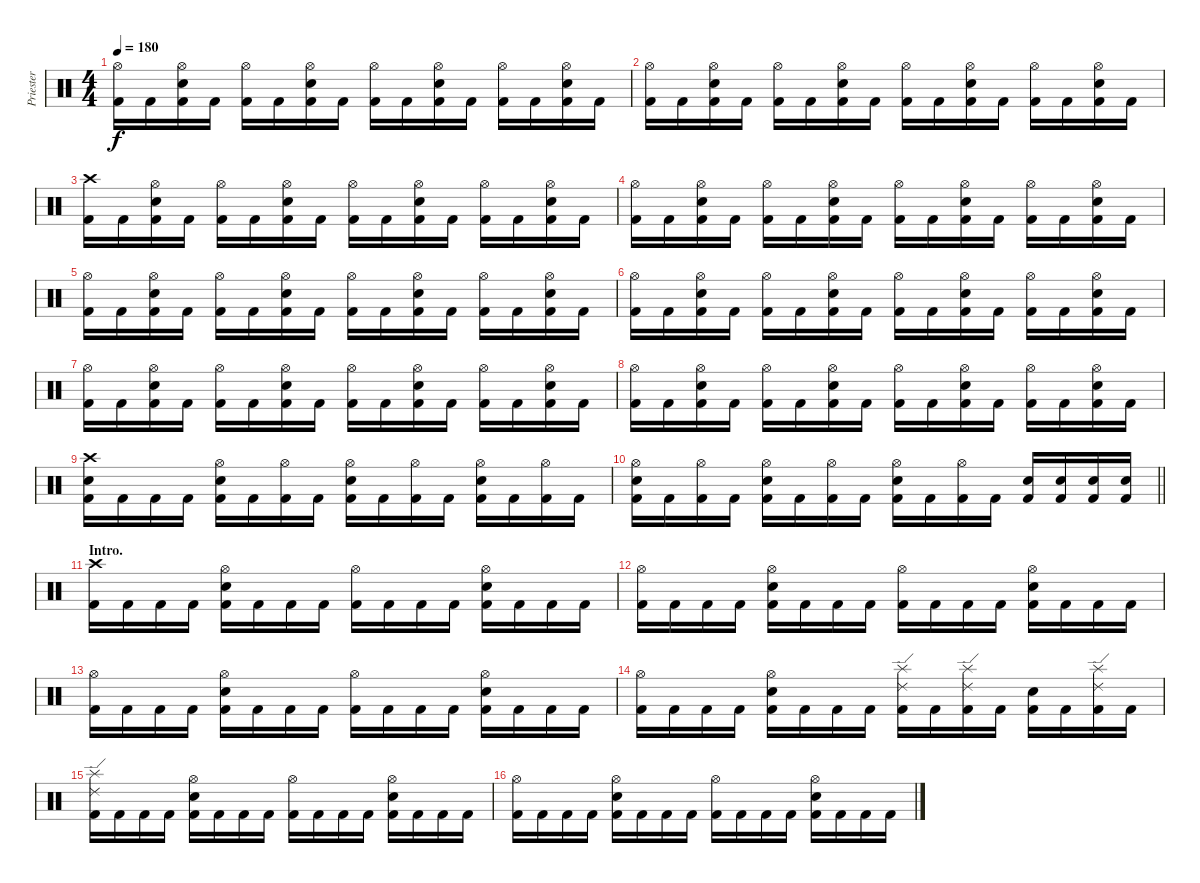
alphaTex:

\track ("Priester" "Priester") {instrument percussion}
\staff {score}
\articulation defaults
\ts (4 4)
\tempo 180
\clef neutral
\ks c
("Hi-Hat (open)" "Kick (hit) 2").16{dy f} "Kick (hit) 2".16 ("Hi-Hat (open)" "Electric Snare (hit)" "Kick (hit) 2").16 "Kick (hit) 2".16 ("Hi-Hat (open)" "Kick (hit) 2").16 "Kick (hit) 2".16 ("Hi-Hat (open)" "Electric Snare (hit)" "Kick (hit) 2").16 "Kick (hit) 2".16 ("Hi-Hat (open)" "Kick (hit) 2").16 "Kick (hit) 2".16 ("Hi-Hat (open)" "Electric Snare (hit)" "Kick (hit) 2").16 "Kick (hit) 2".16 ("Hi-Hat (open)" "Kick (hit) 2").16 "Kick (hit) 2".16 ("Hi-Hat (open)" "Electric Snare (hit)" "Kick (hit) 2").16 "Kick (hit) 2".16 |
("Hi-Hat (open)" "Kick (hit) 2").16 "Kick (hit) 2".16 ("Hi-Hat (open)" "Electric Snare (hit)" "Kick (hit) 2").16 "Kick (hit) 2".16 ("Hi-Hat (open)" "Kick (hit) 2").16 "Kick (hit) 2".16 ("Hi-Hat (open)" "Electric Snare (hit)" "Kick (hit) 2").16 "Kick (hit) 2".16 ("Hi-Hat (open)" "Kick (hit) 2").16 "Kick (hit) 2".16 ("Hi-Hat (open)" "Electric Snare (hit)" "Kick (hit) 2").16 "Kick (hit) 2".16 ("Hi-Hat (open)" "Kick (hit) 2").16 "Kick (hit) 2".16 ("Hi-Hat (open)" "Electric Snare (hit)" "Kick (hit) 2").16 "Kick (hit) 2".16 |
("Crash high (hit)" "Kick (hit) 2").16 "Kick (hit) 2".16 ("Hi-Hat (open)" "Electric Snare (hit)" "Kick (hit) 2").16 "Kick (hit) 2".16 ("Hi-Hat (open)" "Kick (hit) 2").16 "Kick (hit) 2".16 ("Hi-Hat (open)" "Electric Snare (hit)" "Kick (hit) 2").16 "Kick (hit) 2".16 ("Hi-Hat (open)" "Kick (hit) 2").16 "Kick (hit) 2".16 ("Hi-Hat (open)" "Electric Snare (hit)" "Kick (hit) 2").16 "Kick (hit) 2".16 ("Hi-Hat (open)" "Kick (hit) 2").16 "Kick (hit) 2".16 ("Hi-Hat (open)" "Electric Snare (hit)" "Kick (hit) 2").16 "Kick (hit) 2".16 |
("Hi-Hat (open)" "Kick (hit) 2").16 "Kick (hit) 2".16 ("Hi-Hat (open)" "Electric Snare (hit)" "Kick (hit) 2").16 "Kick (hit) 2".16 ("Hi-Hat (open)" "Kick (hit) 2").16 "Kick (hit) 2".16 ("Hi-Hat (open)" "Electric Snare (hit)" "Kick (hit) 2").16 "Kick (hit) 2".16 ("Hi-Hat (open)" "Kick (hit) 2").16 "Kick (hit) 2".16 ("Hi-Hat (open)" "Electric Snare (hit)" "Kick (hit) 2").16 "Kick (hit) 2".16 ("Hi-Hat (open)" "Kick (hit) 2").16 "Kick (hit) 2".16 ("Hi-Hat (open)" "Electric Snare (hit)" "Kick (hit) 2").16 "Kick (hit) 2".16 |
("Hi-Hat (open)" "Kick (hit) 2").16 "Kick (hit) 2".16 ("Hi-Hat (open)" "Electric Snare (hit)" "Kick (hit) 2").16 "Kick (hit) 2".16 ("Hi-Hat (open)" "Kick (hit) 2").16 "Kick (hit) 2".16 ("Hi-Hat (open)" "Electric Snare (hit)" "Kick (hit) 2").16 "Kick (hit) 2".16 ("Hi-Hat (open)" "Kick (hit) 2").16 "Kick (hit) 2".16 ("Hi-Hat (open)" "Electric Snare (hit)" "Kick (hit) 2").16 "Kick (hit) 2".16 ("Hi-Hat (open)" "Kick (hit) 2").16 "Kick (hit) 2".16 ("Hi-Hat (open)" "Electric Snare (hit)" "Kick (hit) 2").16 "Kick (hit) 2".16 |
("Hi-Hat (open)" "Kick (hit) 2").16 "Kick (hit) 2".16 ("Hi-Hat (open)" "Electric Snare (hit)" "Kick (hit) 2").16 "Kick (hit) 2".16 ("Hi-Hat (open)" "Kick (hit) 2").16 "Kick (hit) 2".16 ("Hi-Hat (open)" "Electric Snare (hit)" "Kick (hit) 2").16 "Kick (hit) 2".16 ("Hi-Hat (open)" "Kick (hit) 2").16 "Kick (hit) 2".16 ("Hi-Hat (open)" "Electric Snare (hit)" "Kick (hit) 2").16 "Kick (hit) 2".16 ("Hi-Hat (open)" "Kick (hit) 2").16 "Kick (hit) 2".16 ("Hi-Hat (open)" "Electric Snare (hit)" "Kick (hit) 2").16 "Kick (hit) 2".16 |
("Hi-Hat (open)" "Kick (hit) 2").16 "Kick (hit) 2".16 ("Hi-Hat (open)" "Electric Snare (hit)" "Kick (hit) 2").16 "Kick (hit) 2".16 ("Hi-Hat (open)" "Kick (hit) 2").16 "Kick (hit) 2".16 ("Hi-Hat (open)" "Electric Snare (hit)" "Kick (hit) 2").16 "Kick (hit) 2".16 ("Hi-Hat (open)" "Kick (hit) 2").16 "Kick (hit) 2".16 ("Hi-Hat (open)" "Electric Snare (hit)" "Kick (hit) 2").16 "Kick (hit) 2".16 ("Hi-Hat (open)" "Kick (hit) 2").16 "Kick (hit) 2".16 ("Hi-Hat (open)" "Electric Snare (hit)" "Kick (hit) 2").16 "Kick (hit) 2".16 |
("Hi-Hat (open)" "Kick (hit) 2").16 "Kick (hit) 2".16 ("Hi-Hat (open)" "Electric Snare (hit)" "Kick (hit) 2").16 "Kick (hit) 2".16 ("Hi-Hat (open)" "Kick (hit) 2").16 "Kick (hit) 2".16 ("Hi-Hat (open)" "Electric Snare (hit)" "Kick (hit) 2").16 "Kick (hit) 2".16 ("Hi-Hat (open)" "Kick (hit) 2").16 "Kick (hit) 2".16 ("Hi-Hat (open)" "Electric Snare (hit)" "Kick (hit) 2").16 "Kick (hit) 2".16 ("Hi-Hat (open)" "Kick (hit) 2").16 "Kick (hit) 2".16 ("Hi-Hat (open)" "Electric Snare (hit)" "Kick (hit) 2").16 "Kick (hit) 2".16 |
("Crash high (hit)" "Electric Snare (hit)" "Kick (hit) 2").16 "Kick (hit) 2".16 "Kick (hit) 2".16 "Kick (hit) 2".16 ("Hi-Hat (open)" "Electric Snare (hit)" "Kick (hit) 2").16 "Kick (hit) 2".16 ("Hi-Hat (open)" "Kick (hit) 2").16 "Kick (hit) 2".16 ("Hi-Hat (open)" "Electric Snare (hit)" "Kick (hit) 2").16 "Kick (hit) 2".16 ("Hi-Hat (open)" "Kick (hit) 2").16 "Kick (hit) 2".16 ("Hi-Hat (open)" "Electric Snare (hit)" "Kick (hit) 2").16 "Kick (hit) 2".16 ("Hi-Hat (open)" "Kick (hit) 2").16 "Kick (hit) 2".16 |
\barLineRight lightlight
("Hi-Hat (open)" "Electric Snare (hit)" "Kick (hit) 2").16 "Kick (hit) 2".16 ("Hi-Hat (open)" "Kick (hit) 2").16 "Kick (hit) 2".16 ("Hi-Hat (open)" "Electric Snare (hit)" "Kick (hit) 2").16 "Kick (hit) 2".16 ("Hi-Hat (open)" "Kick (hit) 2").16 "Kick (hit) 2".16 ("Hi-Hat (open)" "Electric Snare (hit)" "Kick (hit) 2").16 "Kick (hit) 2".16 ("Hi-Hat (open)" "Kick (hit) 2").16 "Kick (hit) 2".16 ("Electric Snare (hit)" "Kick (hit) 2").16 ("Electric Snare (hit)" "Kick (hit) 2").16 ("Electric Snare (hit)" "Kick (hit) 2").16 ("Electric Snare (hit)" "Kick (hit) 2").16 |
\section ("" "Intro.")
("Crash high (hit)" "Kick (hit) 2").16 "Kick (hit) 2".16 "Kick (hit) 2".16 "Kick (hit) 2".16 ("Hi-Hat (open)" "Electric Snare (hit)" "Kick (hit) 2").16 "Kick (hit) 2".16 "Kick (hit) 2".16 "Kick (hit) 2".16 ("Hi-Hat (open)" "Kick (hit) 2").16 "Kick (hit) 2".16 "Kick (hit) 2".16 "Kick (hit) 2".16 ("Hi-Hat (open)" "Electric Snare (hit)" "Kick (hit) 2").16 "Kick (hit) 2".16 "Kick (hit) 2".16 "Kick (hit) 2".16 |
("Hi-Hat (open)" "Kick (hit) 2").16 "Kick (hit) 2".16 "Kick (hit) 2".16 "Kick (hit) 2".16 ("Hi-Hat (open)" "Electric Snare (hit)" "Kick (hit) 2").16 "Kick (hit) 2".16 "Kick (hit) 2".16 "Kick (hit) 2".16 ("Hi-Hat (open)" "Kick (hit) 2").16 "Kick (hit) 2".16 "Kick (hit) 2".16 "Kick (hit) 2".16 ("Hi-Hat (open)" "Electric Snare (hit)" "Kick (hit) 2").16 "Kick (hit) 2".16 "Kick (hit) 2".16 "Kick (hit) 2".16 |
("Hi-Hat (open)" "Kick (hit) 2").16 "Kick (hit) 2".16 "Kick (hit) 2".16 "Kick (hit) 2".16 ("Hi-Hat (open)" "Electric Snare (hit)" "Kick (hit) 2").16 "Kick (hit) 2".16 "Kick (hit) 2".16 "Kick (hit) 2".16 ("Hi-Hat (open)" "Kick (hit) 2").16 "Kick (hit) 2".16 "Kick (hit) 2".16 "Kick (hit) 2".16 ("Hi-Hat (open)" "Electric Snare (hit)" "Kick (hit) 2").16 "Kick (hit) 2".16 "Kick (hit) 2".16 "Kick (hit) 2".16 |
("Hi-Hat (open)" "Kick (hit) 2").16 "Kick (hit) 2".16 "Kick (hit) 2".16 "Kick (hit) 2".16 ("Hi-Hat (open)" "Electric Snare (hit)" "Kick (hit) 2").16 "Kick (hit) 2".16 "Kick (hit) 2".16 "Kick (hit) 2".16 ("Ride (edge) 2" "Splash (hit)" "Kick (hit) 2").16 "Kick (hit) 2".16 ("Ride (edge) 2" "Splash (hit)" "Kick (hit) 2").16 "Kick (hit) 2".16 ("Electric Snare (hit)" "Kick (hit) 2").16 "Kick (hit) 2".16 ("Ride (edge) 2" "Splash (hit)" "Kick (hit) 2").16 "Kick (hit) 2".16 |
("Ride (edge) 2" "Splash (hit)" "Kick (hit) 2").16 "Kick (hit) 2".16 "Kick (hit) 2".16 "Kick (hit) 2".16 ("Hi-Hat (open)" "Electric Snare (hit)" "Kick (hit) 2").16 "Kick (hit) 2".16 "Kick (hit) 2".16 "Kick (hit) 2".16 ("Hi-Hat (open)" "Kick (hit) 2").16 "Kick (hit) 2".16 "Kick (hit) 2".16 "Kick (hit) 2".16 ("Hi-Hat (open)" "Electric Snare (hit)" "Kick (hit) 2").16 "Kick (hit) 2".16 "Kick (hit) 2".16 "Kick (hit) 2".16 |
("Hi-Hat (open)" "Kick (hit) 2").16 "Kick (hit) 2".16 "Kick (hit) 2".16 "Kick (hit) 2".16 ("Hi-Hat (open)" "Electric Snare (hit)" "Kick (hit) 2").16 "Kick (hit) 2".16 "Kick (hit) 2".16 "Kick (hit) 2".16 ("Hi-Hat (open)" "Kick (hit) 2").16 "Kick (hit) 2".16 "Kick (hit) 2".16 "Kick (hit) 2".16 ("Hi-Hat (open)" "Electric Snare (hit)" "Kick (hit) 2").16 "Kick (hit) 2".16 "Kick (hit) 2".16 "Kick (hit) 2".16
